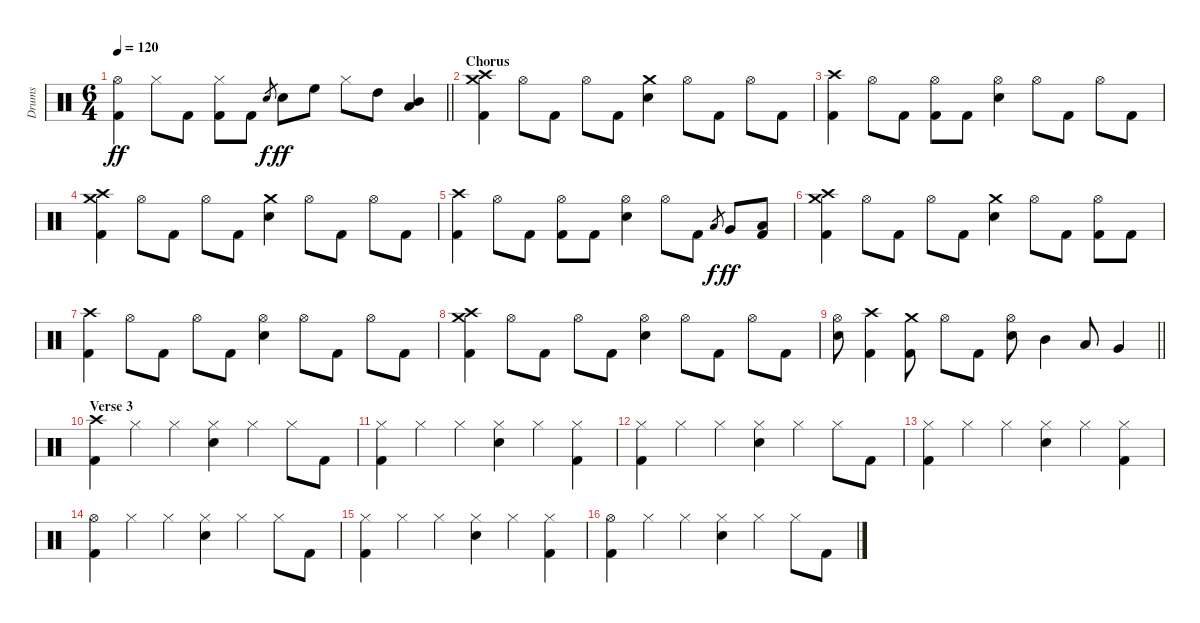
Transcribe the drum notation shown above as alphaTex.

\track ("Drums" "Drums") {instrument percussion}
\staff {score}
\articulation defaults
\ts (6 4)
\tempo 120
\clef neutral
\barLineRight lightlight
\ks c
("Hi-Hat (open)" "Kick (hit) 2").4{dy ff} "Hi-Hat (closed)".8 "Kick (hit) 2".8 ("Hi-Hat (closed)" "Kick (hit) 2").8 "Kick (hit) 2".8 "Electric Snare (hit)".8{gr dy f} "Electric Snare (hit)".8{dy ff} "High Floor Tom (hit)".8 "Hi-Hat (closed)".8 "High Tom (hit)".8 ("Mid Tom (hit)" "Low Tom (hit)").4 |
\section ("" "Chorus")
("Crash medium (hit)" "Crash high (hit)" "Kick (hit) 2").4 "Hi-Hat (open)".8 "Kick (hit) 2".8 "Hi-Hat (open)".8 "Kick (hit) 2".8 ("Crash medium (hit)" "Electric Snare (hit)").4 "Hi-Hat (open)".8 "Kick (hit) 2".8 "Hi-Hat (open)".8 "Kick (hit) 2".8 |
("Crash high (hit)" "Kick (hit) 2").4 "Hi-Hat (open)".8 "Kick (hit) 2".8 ("Hi-Hat (open)" "Kick (hit) 2").8 "Kick (hit) 2".8 ("Hi-Hat (open)" "Electric Snare (hit)").4 "Hi-Hat (open)".8 "Kick (hit) 2".8 "Hi-Hat (open)".8 "Kick (hit) 2".8 |
("Crash medium (hit)" "Crash high (hit)" "Kick (hit) 2").4 "Hi-Hat (open)".8 "Kick (hit) 2".8 "Hi-Hat (open)".8 "Kick (hit) 2".8 ("Crash medium (hit)" "Electric Snare (hit)").4 "Hi-Hat (open)".8 "Kick (hit) 2".8 "Hi-Hat (open)".8 "Kick (hit) 2".8 |
("Crash high (hit)" "Kick (hit) 2").4 "Hi-Hat (open)".8 "Kick (hit) 2".8 ("Hi-Hat (open)" "Kick (hit) 2").8 "Kick (hit) 2".8 ("Hi-Hat (open)" "Electric Snare (hit)").4 "Hi-Hat (open)".8 "Kick (hit) 2".8 "Low Tom (hit)".8{gr dy f} "Very Low Tom (hit)".8{dy ff} ("Low Floor Tom (hit)" "Kick (hit) 2").8 |
("Crash medium (hit)" "Crash high (hit)" "Kick (hit) 2").4 "Hi-Hat (open)".8 "Kick (hit) 2".8 "Hi-Hat (open)".8 "Kick (hit) 2".8 ("Crash medium (hit)" "Electric Snare (hit)").4 "Hi-Hat (open)".8 "Kick (hit) 2".8 ("Hi-Hat (open)" "Kick (hit) 2").8 "Kick (hit) 2".8 |
("Crash high (hit)" "Kick (hit) 2").4 "Hi-Hat (open)".8 "Kick (hit) 2".8 "Hi-Hat (open)".8 "Kick (hit) 2".8 ("Hi-Hat (open)" "Electric Snare (hit)").4 "Hi-Hat (open)".8 "Kick (hit) 2".8 "Hi-Hat (open)".8 "Kick (hit) 2".8 |
("Crash medium (hit)" "Crash high (hit)" "Kick (hit) 2").4 "Hi-Hat (open)".8 "Kick (hit) 2".8 "Hi-Hat (open)".8 "Kick (hit) 2".8 ("Hi-Hat (open)" "Electric Snare (hit)").4 "Hi-Hat (open)".8 "Kick (hit) 2".8 "Hi-Hat (open)".8 "Kick (hit) 2".8 |
\barLineRight lightlight
("Hi-Hat (open)" "Electric Snare (hit)").8 ("Crash high (hit)" "Kick (hit) 2").4 ("Crash medium (hit)" "Kick (hit) 2").8 "Hi-Hat (open)".8 "Kick (hit) 2".8 ("Hi-Hat (open)" "Electric Snare (hit)").8 "Mid Tom (hit)".4 "Low Tom (hit)".8 "Very Low Tom (hit)".4 |
\section ("" "Verse 3")
("Crash high (hit)" "Kick (hit) 2").4 "Hi-Hat (closed)".4 "Hi-Hat (closed)".4 ("Hi-Hat (closed)" "Electric Snare (hit)").4 "Hi-Hat (closed)".4 "Hi-Hat (closed)".8 "Kick (hit) 2".8 |
("Hi-Hat (closed)" "Kick (hit) 2").4 "Hi-Hat (closed)".4 "Hi-Hat (closed)".4 ("Hi-Hat (closed)" "Electric Snare (hit)").4 "Hi-Hat (closed)".4 ("Hi-Hat (closed)" "Kick (hit) 2").4 |
("Hi-Hat (closed)" "Kick (hit) 2").4 "Hi-Hat (closed)".4 "Hi-Hat (closed)".4 ("Hi-Hat (closed)" "Electric Snare (hit)").4 "Hi-Hat (closed)".4 "Hi-Hat (closed)".8 "Kick (hit) 2".8 |
("Hi-Hat (closed)" "Kick (hit) 2").4 "Hi-Hat (closed)".4 "Hi-Hat (closed)".4 ("Hi-Hat (closed)" "Electric Snare (hit)").4 "Hi-Hat (closed)".4 ("Hi-Hat (closed)" "Kick (hit) 2").4 |
("Hi-Hat (open)" "Kick (hit) 2").4 "Hi-Hat (closed)".4 "Hi-Hat (closed)".4 ("Hi-Hat (closed)" "Electric Snare (hit)").4 "Hi-Hat (closed)".4 "Hi-Hat (closed)".8 "Kick (hit) 2".8 |
("Hi-Hat (closed)" "Kick (hit) 2").4 "Hi-Hat (closed)".4 "Hi-Hat (closed)".4 ("Hi-Hat (closed)" "Electric Snare (hit)").4 "Hi-Hat (closed)".4 ("Hi-Hat (closed)" "Kick (hit) 2").4 |
("Hi-Hat (open)" "Kick (hit) 2").4 "Hi-Hat (closed)".4 "Hi-Hat (closed)".4 ("Hi-Hat (closed)" "Electric Snare (hit)").4 "Hi-Hat (closed)".4 "Hi-Hat (closed)".8 "Kick (hit) 2".8
